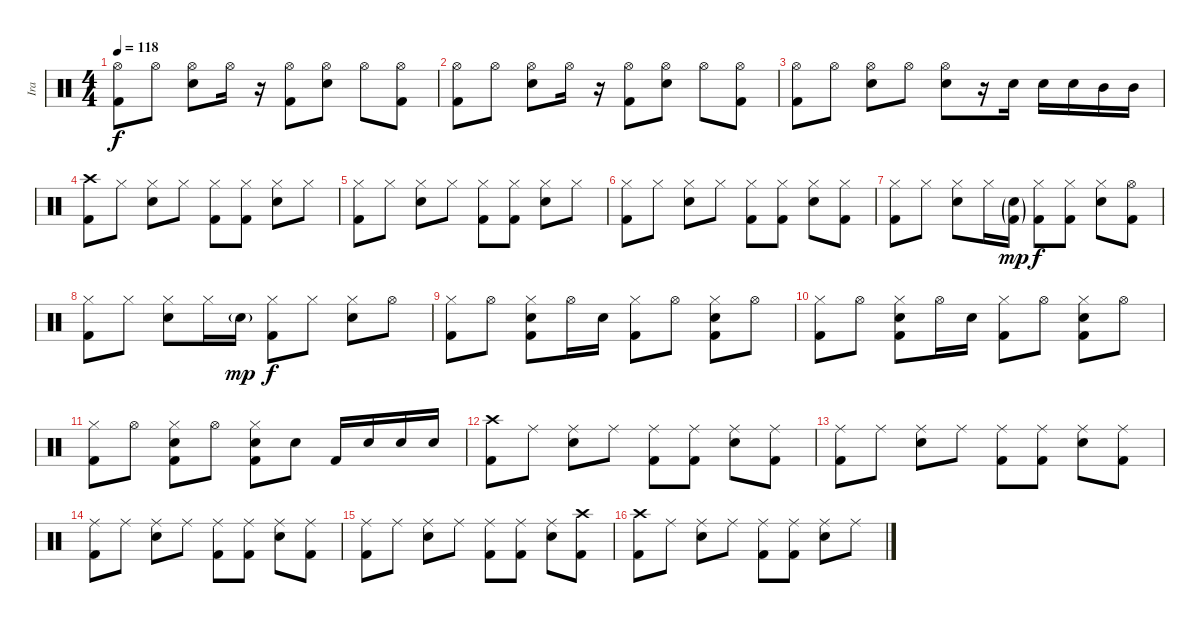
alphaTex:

\track ("Ira" "Ira") {instrument percussion}
\staff {score}
\articulation defaults
\ts (4 4)
\tempo 118
\clef neutral
\ks c
("Hi-Hat (open)" "Kick (hit) 2").8{dy f} "Hi-Hat (open)".8 ("Hi-Hat (open)" "Electric Snare (hit)").8 "Hi-Hat (open)".16 r.16 ("Hi-Hat (open)" "Kick (hit) 2").8 ("Hi-Hat (open)" "Electric Snare (hit)").8 "Hi-Hat (open)".8 ("Hi-Hat (open)" "Kick (hit) 2").8 |
("Hi-Hat (open)" "Kick (hit) 2").8 "Hi-Hat (open)".8 ("Hi-Hat (open)" "Electric Snare (hit)").8 "Hi-Hat (open)".16 r.16 ("Hi-Hat (open)" "Kick (hit) 2").8 ("Hi-Hat (open)" "Electric Snare (hit)").8 "Hi-Hat (open)".8 ("Hi-Hat (open)" "Kick (hit) 2").8 |
("Hi-Hat (open)" "Kick (hit) 2").8 "Hi-Hat (open)".8 ("Hi-Hat (open)" "Electric Snare (hit)").8 "Hi-Hat (open)".8 ("Hi-Hat (open)" "Electric Snare (hit)").8 r.16 "Electric Snare (hit)".16 "Electric Snare (hit)".16 "Electric Snare (hit)".16 "Mid Tom (hit)".16 "Mid Tom (hit)".16 |
("Crash high (hit)" "Kick (hit) 2").8 "Hi-Hat (closed)".8 ("Hi-Hat (closed)" "Electric Snare (hit)").8 "Hi-Hat (closed)".8 ("Hi-Hat (closed)" "Kick (hit) 2").8 ("Hi-Hat (closed)" "Kick (hit) 2").8 ("Hi-Hat (closed)" "Electric Snare (hit)").8 "Hi-Hat (closed)".8 |
("Hi-Hat (closed)" "Kick (hit) 2").8 "Hi-Hat (closed)".8 ("Hi-Hat (closed)" "Electric Snare (hit)").8 "Hi-Hat (closed)".8 ("Hi-Hat (closed)" "Kick (hit) 2").8 ("Hi-Hat (closed)" "Kick (hit) 2").8 ("Hi-Hat (closed)" "Electric Snare (hit)").8 "Hi-Hat (closed)".8 |
("Hi-Hat (closed)" "Kick (hit) 2").8 "Hi-Hat (closed)".8 ("Hi-Hat (closed)" "Electric Snare (hit)").8 "Hi-Hat (closed)".8 ("Hi-Hat (closed)" "Kick (hit) 2").8 ("Hi-Hat (closed)" "Kick (hit) 2").8 ("Hi-Hat (closed)" "Electric Snare (hit)").8 ("Hi-Hat (closed)" "Kick (hit) 2").8 |
("Hi-Hat (closed)" "Kick (hit) 2").8 "Hi-Hat (closed)".8 ("Hi-Hat (closed)" "Electric Snare (hit)").8 "Hi-Hat (closed)".16 ("Electric Snare (hit)"{g} "Kick (hit) 2"{g}).16{dy mp} ("Hi-Hat (closed)" "Kick (hit) 2").8{dy f} ("Hi-Hat (closed)" "Kick (hit) 2").8 ("Hi-Hat (closed)" "Electric Snare (hit)").8 ("Hi-Hat (open)" "Kick (hit) 2").8 |
("Hi-Hat (closed)" "Kick (hit) 2").8 "Hi-Hat (closed)".8 ("Hi-Hat (closed)" "Electric Snare (hit)").8 "Hi-Hat (closed)".16 "Electric Snare (hit)"{g}.16{dy mp} ("Hi-Hat (closed)" "Kick (hit) 2").8{dy f} "Hi-Hat (closed)".8 ("Hi-Hat (closed)" "Electric Snare (hit)").8 "Hi-Hat (open)".8 |
("Hi-Hat (closed)" "Kick (hit) 2").8 "Hi-Hat (open)".8 ("Hi-Hat (closed)" "Electric Snare (hit)" "Kick (hit) 2").8 "Hi-Hat (open)".16 "Electric Snare (hit)".16 ("Hi-Hat (closed)" "Kick (hit) 2").8 "Hi-Hat (open)".8 ("Hi-Hat (closed)" "Electric Snare (hit)" "Kick (hit) 2").8 "Hi-Hat (open)".8 |
("Hi-Hat (closed)" "Kick (hit) 2").8 "Hi-Hat (open)".8 ("Hi-Hat (closed)" "Electric Snare (hit)" "Kick (hit) 2").8 "Hi-Hat (open)".16 "Electric Snare (hit)".16 ("Hi-Hat (closed)" "Kick (hit) 2").8 "Hi-Hat (open)".8 ("Hi-Hat (closed)" "Electric Snare (hit)" "Kick (hit) 2").8 "Hi-Hat (open)".8 |
("Hi-Hat (closed)" "Kick (hit) 2").8 "Hi-Hat (open)".8 ("Hi-Hat (closed)" "Electric Snare (hit)" "Kick (hit) 2").8 "Hi-Hat (open)".8 ("Hi-Hat (closed)" "Electric Snare (hit)" "Kick (hit) 2").8 "Electric Snare (hit)".8 "Kick (hit) 2".16 "Electric Snare (hit)".16 "Electric Snare (hit)".16 "Electric Snare (hit)".16 |
("Crash high (hit)" "Kick (hit) 2").8 "Ride (middle)".8 ("Ride (middle)" "Electric Snare (hit)").8 "Ride (middle)".8 ("Ride (middle)" "Kick (hit) 2").8 ("Ride (middle)" "Kick (hit) 2").8 ("Ride (middle)" "Electric Snare (hit)").8 ("Ride (middle)" "Kick (hit) 2").8 |
("Ride (middle)" "Kick (hit) 2").8 "Ride (middle)".8 ("Ride (middle)" "Electric Snare (hit)").8 "Ride (middle)".8 ("Ride (middle)" "Kick (hit) 2").8 ("Ride (middle)" "Kick (hit) 2").8 ("Ride (middle)" "Electric Snare (hit)").8 ("Ride (middle)" "Kick (hit) 2").8 |
("Ride (middle)" "Kick (hit) 2").8 "Ride (middle)".8 ("Ride (middle)" "Electric Snare (hit)").8 "Ride (middle)".8 ("Ride (middle)" "Kick (hit) 2").8 ("Ride (middle)" "Kick (hit) 2").8 ("Ride (middle)" "Electric Snare (hit)").8 ("Ride (middle)" "Kick (hit) 2").8 |
("Ride (middle)" "Kick (hit) 2").8 "Ride (middle)".8 ("Ride (middle)" "Electric Snare (hit)").8 "Ride (middle)".8 ("Ride (middle)" "Kick (hit) 2").8 ("Ride (middle)" "Kick (hit) 2").8 ("Ride (middle)" "Electric Snare (hit)").8 ("Crash high (hit)" "Kick (hit) 2").8 |
("Crash high (hit)" "Kick (hit) 2").8 "Ride (middle)".8 ("Ride (middle)" "Electric Snare (hit)").8 "Ride (middle)".8 ("Ride (middle)" "Kick (hit) 2").8 ("Ride (middle)" "Kick (hit) 2").8 ("Ride (middle)" "Electric Snare (hit)").8 "Ride (middle)".8
